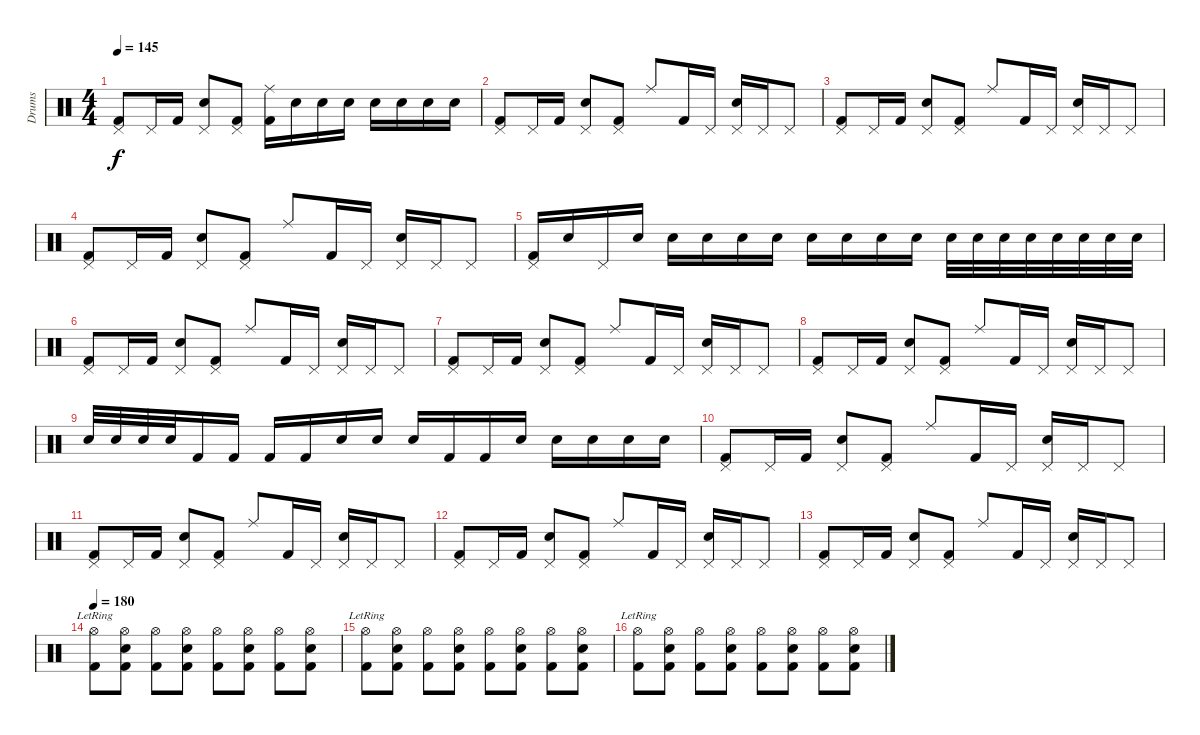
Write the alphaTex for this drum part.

\track ("Drums" "Drums") {instrument percussion}
\staff {score}
\articulation defaults
\ts (4 4)
\tempo 145
\clef neutral
\ks c
("Pedal Hi-Hat (hit)" "Kick (hit) 2").8{dy f} "Pedal Hi-Hat (hit)".16 "Kick (hit) 2".16 ("Pedal Hi-Hat (hit)" "Electric Snare (hit)").8 ("Pedal Hi-Hat (hit)" "Kick (hit) 2").8 ("Ride (middle)" "Kick (hit) 2").16 "Electric Snare (hit)".16 "Electric Snare (hit)".16 "Electric Snare (hit)".16 "Electric Snare (hit)".16 "Electric Snare (hit)".16 "Electric Snare (hit)".16 "Electric Snare (hit)".16 |
("Pedal Hi-Hat (hit)" "Kick (hit) 2").8 "Pedal Hi-Hat (hit)".16 "Kick (hit) 2".16 ("Pedal Hi-Hat (hit)" "Electric Snare (hit)").8 ("Pedal Hi-Hat (hit)" "Kick (hit) 2").8 "Ride (middle)".8 "Kick (hit) 2".16 "Pedal Hi-Hat (hit)".16 ("Pedal Hi-Hat (hit)" "Electric Snare (hit)").16 "Pedal Hi-Hat (hit)".16 "Pedal Hi-Hat (hit)".8 |
("Pedal Hi-Hat (hit)" "Kick (hit) 2").8 "Pedal Hi-Hat (hit)".16 "Kick (hit) 2".16 ("Pedal Hi-Hat (hit)" "Electric Snare (hit)").8 ("Pedal Hi-Hat (hit)" "Kick (hit) 2").8 "Ride (middle)".8 "Kick (hit) 2".16 "Pedal Hi-Hat (hit)".16 ("Pedal Hi-Hat (hit)" "Electric Snare (hit)").16 "Pedal Hi-Hat (hit)".16 "Pedal Hi-Hat (hit)".8 |
("Pedal Hi-Hat (hit)" "Kick (hit) 2").8 "Pedal Hi-Hat (hit)".16 "Kick (hit) 2".16 ("Pedal Hi-Hat (hit)" "Electric Snare (hit)").8 ("Pedal Hi-Hat (hit)" "Kick (hit) 2").8 "Ride (middle)".8 "Kick (hit) 2".16 "Pedal Hi-Hat (hit)".16 ("Pedal Hi-Hat (hit)" "Electric Snare (hit)").16 "Pedal Hi-Hat (hit)".16 "Pedal Hi-Hat (hit)".8 |
("Pedal Hi-Hat (hit)" "Kick (hit) 2").16 "Electric Snare (hit)".16 "Pedal Hi-Hat (hit)".16 "Electric Snare (hit)".16 "Electric Snare (hit)".16 "Electric Snare (hit)".16 "Electric Snare (hit)".16 "Electric Snare (hit)".16 "Electric Snare (hit)".16 "Electric Snare (hit)".16 "Electric Snare (hit)".16 "Electric Snare (hit)".16 "Electric Snare (hit)".32 "Electric Snare (hit)".32 "Electric Snare (hit)".32 "Electric Snare (hit)".32 "Electric Snare (hit)".32 "Electric Snare (hit)".32 "Electric Snare (hit)".32 "Electric Snare (hit)".32 |
("Pedal Hi-Hat (hit)" "Kick (hit) 2").8 "Pedal Hi-Hat (hit)".16 "Kick (hit) 2".16 ("Pedal Hi-Hat (hit)" "Electric Snare (hit)").8 ("Pedal Hi-Hat (hit)" "Kick (hit) 2").8 "Ride (middle)".8 "Kick (hit) 2".16 "Pedal Hi-Hat (hit)".16 ("Pedal Hi-Hat (hit)" "Electric Snare (hit)").16 "Pedal Hi-Hat (hit)".16 "Pedal Hi-Hat (hit)".8 |
("Pedal Hi-Hat (hit)" "Kick (hit) 2").8 "Pedal Hi-Hat (hit)".16 "Kick (hit) 2".16 ("Pedal Hi-Hat (hit)" "Electric Snare (hit)").8 ("Pedal Hi-Hat (hit)" "Kick (hit) 2").8 "Ride (middle)".8 "Kick (hit) 2".16 "Pedal Hi-Hat (hit)".16 ("Pedal Hi-Hat (hit)" "Electric Snare (hit)").16 "Pedal Hi-Hat (hit)".16 "Pedal Hi-Hat (hit)".8 |
("Pedal Hi-Hat (hit)" "Kick (hit) 2").8 "Pedal Hi-Hat (hit)".16 "Kick (hit) 2".16 ("Pedal Hi-Hat (hit)" "Electric Snare (hit)").8 ("Pedal Hi-Hat (hit)" "Kick (hit) 2").8 "Ride (middle)".8 "Kick (hit) 2".16 "Pedal Hi-Hat (hit)".16 ("Pedal Hi-Hat (hit)" "Electric Snare (hit)").16 "Pedal Hi-Hat (hit)".16 "Pedal Hi-Hat (hit)".8 |
"Electric Snare (hit)".32 "Electric Snare (hit)".32 "Electric Snare (hit)".32 "Electric Snare (hit)".32 "Kick (hit) 2".16 "Kick (hit) 2".16 "Kick (hit) 2".16 "Kick (hit) 2".16 "Electric Snare (hit)".16 "Electric Snare (hit)".16 "Electric Snare (hit)".16 "Kick (hit) 2".16 "Kick (hit) 2".16 "Electric Snare (hit)".16 "Electric Snare (hit)".16 "Electric Snare (hit)".16 "Electric Snare (hit)".16 "Electric Snare (hit)".16 |
("Pedal Hi-Hat (hit)" "Kick (hit) 2").8 "Pedal Hi-Hat (hit)".16 "Kick (hit) 2".16 ("Pedal Hi-Hat (hit)" "Electric Snare (hit)").8 ("Pedal Hi-Hat (hit)" "Kick (hit) 2").8 "Ride (middle)".8 "Kick (hit) 2".16 "Pedal Hi-Hat (hit)".16 ("Pedal Hi-Hat (hit)" "Electric Snare (hit)").16 "Pedal Hi-Hat (hit)".16 "Pedal Hi-Hat (hit)".8 |
("Pedal Hi-Hat (hit)" "Kick (hit) 2").8 "Pedal Hi-Hat (hit)".16 "Kick (hit) 2".16 ("Pedal Hi-Hat (hit)" "Electric Snare (hit)").8 ("Pedal Hi-Hat (hit)" "Kick (hit) 2").8 "Ride (middle)".8 "Kick (hit) 2".16 "Pedal Hi-Hat (hit)".16 ("Pedal Hi-Hat (hit)" "Electric Snare (hit)").16 "Pedal Hi-Hat (hit)".16 "Pedal Hi-Hat (hit)".8 |
("Pedal Hi-Hat (hit)" "Kick (hit) 2").8 "Pedal Hi-Hat (hit)".16 "Kick (hit) 2".16 ("Pedal Hi-Hat (hit)" "Electric Snare (hit)").8 ("Pedal Hi-Hat (hit)" "Kick (hit) 2").8 "Ride (middle)".8 "Kick (hit) 2".16 "Pedal Hi-Hat (hit)".16 ("Pedal Hi-Hat (hit)" "Electric Snare (hit)").16 "Pedal Hi-Hat (hit)".16 "Pedal Hi-Hat (hit)".8 |
("Pedal Hi-Hat (hit)" "Kick (hit) 2").8 "Pedal Hi-Hat (hit)".16 "Kick (hit) 2".16 ("Pedal Hi-Hat (hit)" "Electric Snare (hit)").8 ("Pedal Hi-Hat (hit)" "Kick (hit) 2").8 "Ride (middle)".8 "Kick (hit) 2".16 "Pedal Hi-Hat (hit)".16 ("Pedal Hi-Hat (hit)" "Electric Snare (hit)").16 "Pedal Hi-Hat (hit)".16 "Pedal Hi-Hat (hit)".8 |
\tempo 180
("Hi-Hat (open)"{lr} "Kick (hit) 2").8 ("Hi-Hat (open)" "Electric Snare (hit)" "Kick (hit) 2").8 ("Hi-Hat (open)" "Kick (hit) 2").8 ("Hi-Hat (open)" "Electric Snare (hit)" "Kick (hit) 2").8 ("Hi-Hat (open)" "Kick (hit) 2").8 ("Hi-Hat (open)" "Electric Snare (hit)" "Kick (hit) 2").8 ("Hi-Hat (open)" "Kick (hit) 2").8 ("Hi-Hat (open)" "Electric Snare (hit)" "Kick (hit) 2").8 |
("Hi-Hat (open)"{lr} "Kick (hit) 2").8 ("Hi-Hat (open)" "Electric Snare (hit)" "Kick (hit) 2").8 ("Hi-Hat (open)" "Kick (hit) 2").8 ("Hi-Hat (open)" "Electric Snare (hit)" "Kick (hit) 2").8 ("Hi-Hat (open)" "Kick (hit) 2").8 ("Hi-Hat (open)" "Electric Snare (hit)" "Kick (hit) 2").8 ("Hi-Hat (open)" "Kick (hit) 2").8 ("Hi-Hat (open)" "Electric Snare (hit)" "Kick (hit) 2").8 |
("Hi-Hat (open)"{lr} "Kick (hit) 2").8 ("Hi-Hat (open)" "Electric Snare (hit)" "Kick (hit) 2").8 ("Hi-Hat (open)" "Kick (hit) 2").8 ("Hi-Hat (open)" "Electric Snare (hit)" "Kick (hit) 2").8 ("Hi-Hat (open)" "Kick (hit) 2").8 ("Hi-Hat (open)" "Electric Snare (hit)" "Kick (hit) 2").8 ("Hi-Hat (open)" "Kick (hit) 2").8 ("Hi-Hat (open)" "Electric Snare (hit)" "Kick (hit) 2").8
